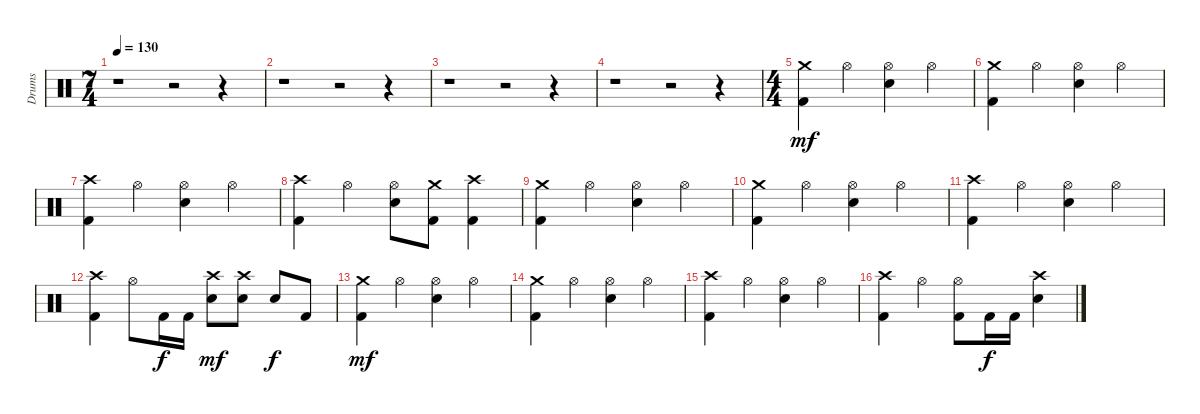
\track ("Drums" "Drums") {instrument percussion}
\staff {score}
\articulation defaults
\ts (7 4)
\tempo 130
\clef neutral
\ks c
r.1{dy mf} r.2 r.4 |
r.1 r.2 r.4 |
r.1 r.2 r.4 |
r.1 r.2 r.4 |
\ts (4 4)
("Kick (hit) 2" "Crash medium (hit)").4 "Hi-Hat (open)".4 ("Electric Snare (hit)" "Hi-Hat (open)").4 "Hi-Hat (open)".4 |
("Kick (hit) 2" "Crash medium (hit)").4 "Hi-Hat (open)".4 ("Electric Snare (hit)" "Hi-Hat (open)").4 "Hi-Hat (open)".4 |
("Kick (hit) 2" "Crash high (hit)").4 "Hi-Hat (open)".4 ("Electric Snare (hit)" "Hi-Hat (open)").4 "Hi-Hat (open)".4 |
("Kick (hit) 2" "Crash high (hit)").4 "Hi-Hat (open)".4 ("Electric Snare (hit)" "Hi-Hat (open)").8 ("Kick (hit) 2" "Crash medium (hit)").8 ("Kick (hit) 2" "Crash high (hit)").4 |
("Kick (hit) 2" "Crash medium (hit)").4 "Hi-Hat (open)".4 ("Electric Snare (hit)" "Hi-Hat (open)").4 "Hi-Hat (open)".4 |
("Kick (hit) 2" "Crash medium (hit)").4 "Hi-Hat (open)".4 ("Electric Snare (hit)" "Hi-Hat (open)").4 "Hi-Hat (open)".4 |
("Kick (hit) 2" "Crash high (hit)").4 "Hi-Hat (open)".4 ("Electric Snare (hit)" "Hi-Hat (open)").4 "Hi-Hat (open)".4 |
("Kick (hit) 2" "Crash high (hit)").4 "Hi-Hat (open)".8 "Kick (hit) 2".16{dy f} "Kick (hit) 2".16 ("Electric Snare (hit)" "Crash high (hit)").8{dy mf} ("Electric Snare (hit)" "Crash high (hit)").8 "Electric Snare (hit)".8{dy f} "Kick (hit) 2".8 |
("Kick (hit) 2" "Crash medium (hit)").4{dy mf} "Hi-Hat (open)".4 ("Electric Snare (hit)" "Hi-Hat (open)").4 "Hi-Hat (open)".4 |
("Kick (hit) 2" "Crash medium (hit)").4 "Hi-Hat (open)".4 ("Electric Snare (hit)" "Hi-Hat (open)").4 "Hi-Hat (open)".4 |
("Kick (hit) 2" "Crash high (hit)").4 "Hi-Hat (open)".4 ("Electric Snare (hit)" "Hi-Hat (open)").4 "Hi-Hat (open)".4 |
("Kick (hit) 2" "Crash high (hit)").4 "Hi-Hat (open)".4 ("Kick (hit) 2" "Hi-Hat (open)").8 "Kick (hit) 2".16{dy f} "Kick (hit) 2".16 ("Electric Snare (hit)" "Crash high (hit)").4
